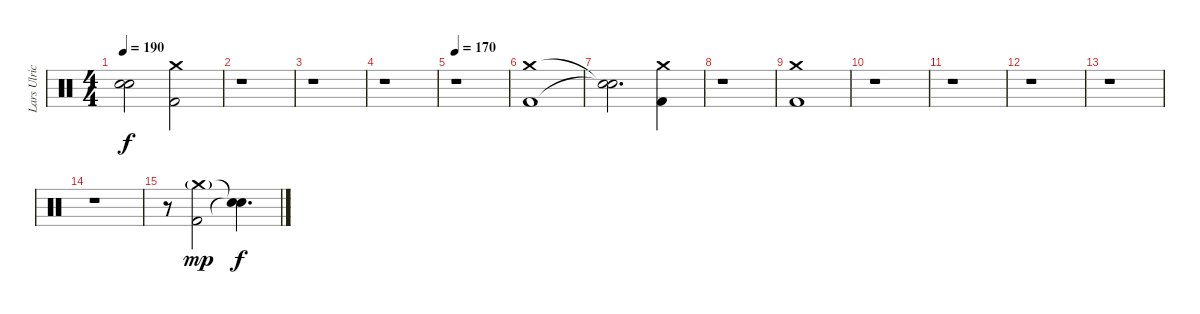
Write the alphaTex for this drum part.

\track ("Lars Ulrich" "Lars Ulric") {instrument percussion}
\staff {score}
\articulation defaults
\ts (4 4)
\tempo 190
\clef neutral
\ks c
("Snare (hit)"{t} "Snare (hit)"{t}).2{dy f} ("Crash medium (hit)" "Kick (hit) 2").2 |
r.1 |
r.1 |
r.1 |
\tempo 170
r.1 |
("Crash medium (hit)" "Kick (hit) 2").1 |
("Snare (hit)"{t} "Snare (hit)"{t}).2{d} ("Crash medium (hit)" "Kick (hit) 2").4 |
r.1 |
("Crash medium (hit)" "Kick (hit) 2").1 |
r.1 |
r.1 |
r.1 |
r.1 |
r.1 |
r.8 ("Crash medium (hit)"{g} "Kick (hit) 2").2{dy mp} ("Snare (hit)"{t} "Snare (hit)"{t}).4{d dy f}
